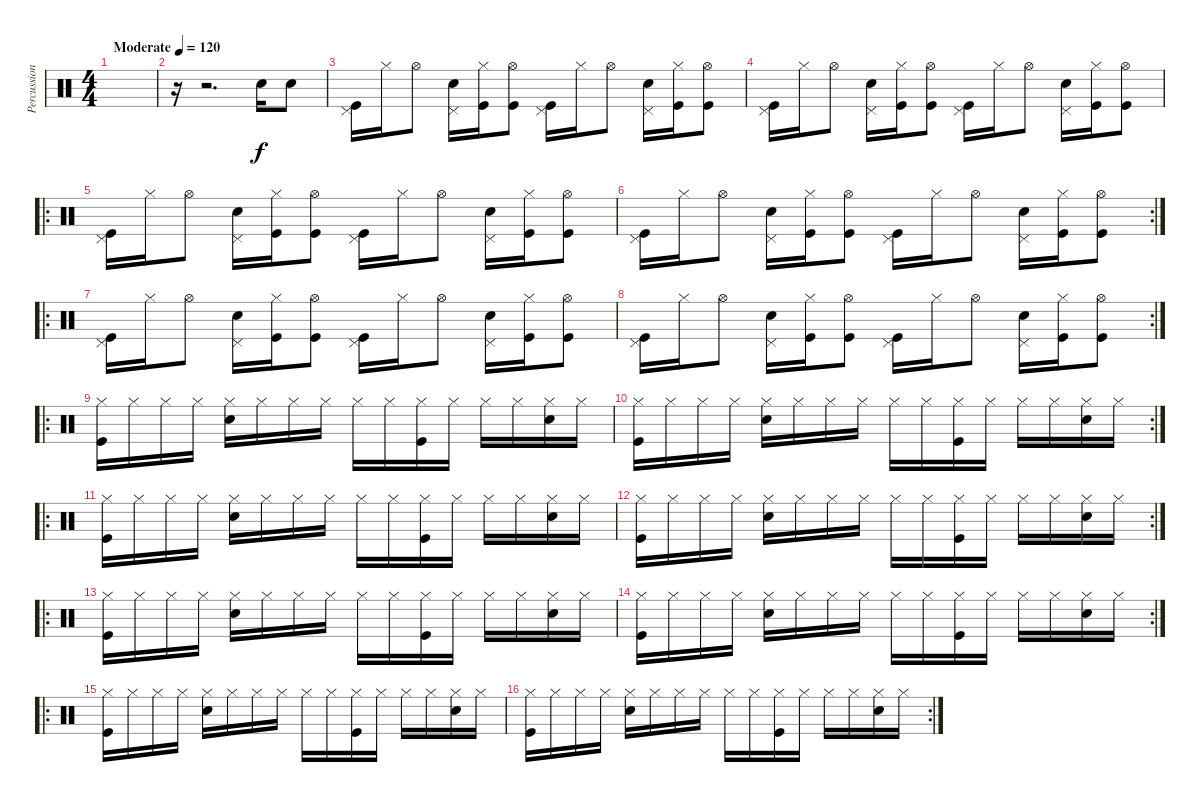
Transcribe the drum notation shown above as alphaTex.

\track ("Percussion" "Percussion") {instrument percussion}
\staff {score}
\articulation defaults
\ts (4 4)
\tempo (120 "Moderate")
\clef neutral
\ks c
|
r.16 r.2{d} "Snare (hit) 2".16 "Snare (hit) 2".8 |
("Pedal Hi-Hat (hit)" "Kick (hit)").16 "Hi-Hat (closed)".16 "Hi-Hat (open)".8 ("Pedal Hi-Hat (hit)" "Snare (hit) 2").16 ("Hi-Hat (closed)" "Kick (hit)").16 ("Hi-Hat (open)" "Kick (hit)").8 ("Pedal Hi-Hat (hit)" "Kick (hit)").16 "Hi-Hat (closed)".16 "Hi-Hat (open)".8 ("Pedal Hi-Hat (hit)" "Snare (hit) 2").16 ("Hi-Hat (closed)" "Kick (hit)").16 ("Hi-Hat (open)" "Kick (hit)").8 |
("Pedal Hi-Hat (hit)" "Kick (hit)").16 "Hi-Hat (closed)".16 "Hi-Hat (open)".8 ("Pedal Hi-Hat (hit)" "Snare (hit) 2").16 ("Hi-Hat (closed)" "Kick (hit)").16 ("Hi-Hat (open)" "Kick (hit)").8 ("Pedal Hi-Hat (hit)" "Kick (hit)").16 "Hi-Hat (closed)".16 "Hi-Hat (open)".8 ("Pedal Hi-Hat (hit)" "Snare (hit) 2").16 ("Hi-Hat (closed)" "Kick (hit)").16 ("Hi-Hat (open)" "Kick (hit)").8 |
\ro
("Pedal Hi-Hat (hit)" "Kick (hit)").16 "Hi-Hat (closed)".16 "Hi-Hat (open)".8 ("Pedal Hi-Hat (hit)" "Snare (hit) 2").16 ("Hi-Hat (closed)" "Kick (hit)").16 ("Hi-Hat (open)" "Kick (hit)").8 ("Pedal Hi-Hat (hit)" "Kick (hit)").16 "Hi-Hat (closed)".16 "Hi-Hat (open)".8 ("Pedal Hi-Hat (hit)" "Snare (hit) 2").16 ("Hi-Hat (closed)" "Kick (hit)").16 ("Hi-Hat (open)" "Kick (hit)").8 |
\rc 2
("Pedal Hi-Hat (hit)" "Kick (hit)").16 "Hi-Hat (closed)".16 "Hi-Hat (open)".8 ("Pedal Hi-Hat (hit)" "Snare (hit) 2").16 ("Hi-Hat (closed)" "Kick (hit)").16 ("Hi-Hat (open)" "Kick (hit)").8 ("Pedal Hi-Hat (hit)" "Kick (hit)").16 "Hi-Hat (closed)".16 "Hi-Hat (open)".8 ("Pedal Hi-Hat (hit)" "Snare (hit) 2").16 ("Hi-Hat (closed)" "Kick (hit)").16 ("Hi-Hat (open)" "Kick (hit)").8 |
\ro
("Pedal Hi-Hat (hit)" "Kick (hit)").16 "Hi-Hat (closed)".16 "Hi-Hat (open)".8 ("Pedal Hi-Hat (hit)" "Snare (hit) 2").16 ("Hi-Hat (closed)" "Kick (hit)").16 ("Hi-Hat (open)" "Kick (hit)").8 ("Pedal Hi-Hat (hit)" "Kick (hit)").16 "Hi-Hat (closed)".16 "Hi-Hat (open)".8 ("Pedal Hi-Hat (hit)" "Snare (hit) 2").16 ("Hi-Hat (closed)" "Kick (hit)").16 ("Hi-Hat (open)" "Kick (hit)").8 |
\rc 2
("Pedal Hi-Hat (hit)" "Kick (hit)").16 "Hi-Hat (closed)".16 "Hi-Hat (open)".8 ("Pedal Hi-Hat (hit)" "Snare (hit) 2").16 ("Hi-Hat (closed)" "Kick (hit)").16 ("Hi-Hat (open)" "Kick (hit)").8 ("Pedal Hi-Hat (hit)" "Kick (hit)").16 "Hi-Hat (closed)".16 "Hi-Hat (open)".8 ("Pedal Hi-Hat (hit)" "Snare (hit) 2").16 ("Hi-Hat (closed)" "Kick (hit)").16 ("Hi-Hat (open)" "Kick (hit)").8 |
\ro
("Hi-Hat (closed)" "Kick (hit)").16 "Hi-Hat (closed)".16 "Hi-Hat (closed)".16 "Hi-Hat (closed)".16 ("Hi-Hat (closed)" "Snare (hit) 2").16 "Hi-Hat (closed)".16 "Hi-Hat (closed)".16 "Hi-Hat (closed)".16 "Hi-Hat (closed)".16 "Hi-Hat (closed)".16 ("Hi-Hat (closed)" "Kick (hit)").16 "Hi-Hat (closed)".16 "Hi-Hat (closed)".16 "Hi-Hat (closed)".16 ("Hi-Hat (closed)" "Snare (hit) 2").16 "Hi-Hat (closed)".16 |
\rc 2
("Hi-Hat (closed)" "Kick (hit)").16 "Hi-Hat (closed)".16 "Hi-Hat (closed)".16 "Hi-Hat (closed)".16 ("Hi-Hat (closed)" "Snare (hit) 2").16 "Hi-Hat (closed)".16 "Hi-Hat (closed)".16 "Hi-Hat (closed)".16 "Hi-Hat (closed)".16 "Hi-Hat (closed)".16 ("Hi-Hat (closed)" "Kick (hit)").16 "Hi-Hat (closed)".16 "Hi-Hat (closed)".16 "Hi-Hat (closed)".16 ("Hi-Hat (closed)" "Snare (hit) 2").16 "Hi-Hat (closed)".16 |
\ro
("Hi-Hat (closed)" "Kick (hit)").16 "Hi-Hat (closed)".16 "Hi-Hat (closed)".16 "Hi-Hat (closed)".16 ("Hi-Hat (closed)" "Snare (hit) 2").16 "Hi-Hat (closed)".16 "Hi-Hat (closed)".16 "Hi-Hat (closed)".16 "Hi-Hat (closed)".16 "Hi-Hat (closed)".16 ("Hi-Hat (closed)" "Kick (hit)").16 "Hi-Hat (closed)".16 "Hi-Hat (closed)".16 "Hi-Hat (closed)".16 ("Hi-Hat (closed)" "Snare (hit) 2").16 "Hi-Hat (closed)".16 |
\rc 2
("Hi-Hat (closed)" "Kick (hit)").16 "Hi-Hat (closed)".16 "Hi-Hat (closed)".16 "Hi-Hat (closed)".16 ("Hi-Hat (closed)" "Snare (hit) 2").16 "Hi-Hat (closed)".16 "Hi-Hat (closed)".16 "Hi-Hat (closed)".16 "Hi-Hat (closed)".16 "Hi-Hat (closed)".16 ("Hi-Hat (closed)" "Kick (hit)").16 "Hi-Hat (closed)".16 "Hi-Hat (closed)".16 "Hi-Hat (closed)".16 ("Hi-Hat (closed)" "Snare (hit) 2").16 "Hi-Hat (closed)".16 |
\ro
("Hi-Hat (closed)" "Kick (hit)").16 "Hi-Hat (closed)".16 "Hi-Hat (closed)".16 "Hi-Hat (closed)".16 ("Hi-Hat (closed)" "Snare (hit) 2").16 "Hi-Hat (closed)".16 "Hi-Hat (closed)".16 "Hi-Hat (closed)".16 "Hi-Hat (closed)".16 "Hi-Hat (closed)".16 ("Hi-Hat (closed)" "Kick (hit)").16 "Hi-Hat (closed)".16 "Hi-Hat (closed)".16 "Hi-Hat (closed)".16 ("Hi-Hat (closed)" "Snare (hit) 2").16 "Hi-Hat (closed)".16 |
\rc 2
("Hi-Hat (closed)" "Kick (hit)").16 "Hi-Hat (closed)".16 "Hi-Hat (closed)".16 "Hi-Hat (closed)".16 ("Hi-Hat (closed)" "Snare (hit) 2").16 "Hi-Hat (closed)".16 "Hi-Hat (closed)".16 "Hi-Hat (closed)".16 "Hi-Hat (closed)".16 "Hi-Hat (closed)".16 ("Hi-Hat (closed)" "Kick (hit)").16 "Hi-Hat (closed)".16 "Hi-Hat (closed)".16 "Hi-Hat (closed)".16 ("Hi-Hat (closed)" "Snare (hit) 2").16 "Hi-Hat (closed)".16 |
\ro
("Hi-Hat (closed)" "Kick (hit)").16 "Hi-Hat (closed)".16 "Hi-Hat (closed)".16 "Hi-Hat (closed)".16 ("Hi-Hat (closed)" "Snare (hit) 2").16 "Hi-Hat (closed)".16 "Hi-Hat (closed)".16 "Hi-Hat (closed)".16 "Hi-Hat (closed)".16 "Hi-Hat (closed)".16 ("Hi-Hat (closed)" "Kick (hit)").16 "Hi-Hat (closed)".16 "Hi-Hat (closed)".16 "Hi-Hat (closed)".16 ("Hi-Hat (closed)" "Snare (hit) 2").16 "Hi-Hat (closed)".16 |
\rc 2
("Hi-Hat (closed)" "Kick (hit)").16 "Hi-Hat (closed)".16 "Hi-Hat (closed)".16 "Hi-Hat (closed)".16 ("Hi-Hat (closed)" "Snare (hit) 2").16 "Hi-Hat (closed)".16 "Hi-Hat (closed)".16 "Hi-Hat (closed)".16 "Hi-Hat (closed)".16 "Hi-Hat (closed)".16 ("Hi-Hat (closed)" "Kick (hit)").16 "Hi-Hat (closed)".16 "Hi-Hat (closed)".16 "Hi-Hat (closed)".16 ("Hi-Hat (closed)" "Snare (hit) 2").16 "Hi-Hat (closed)".16
